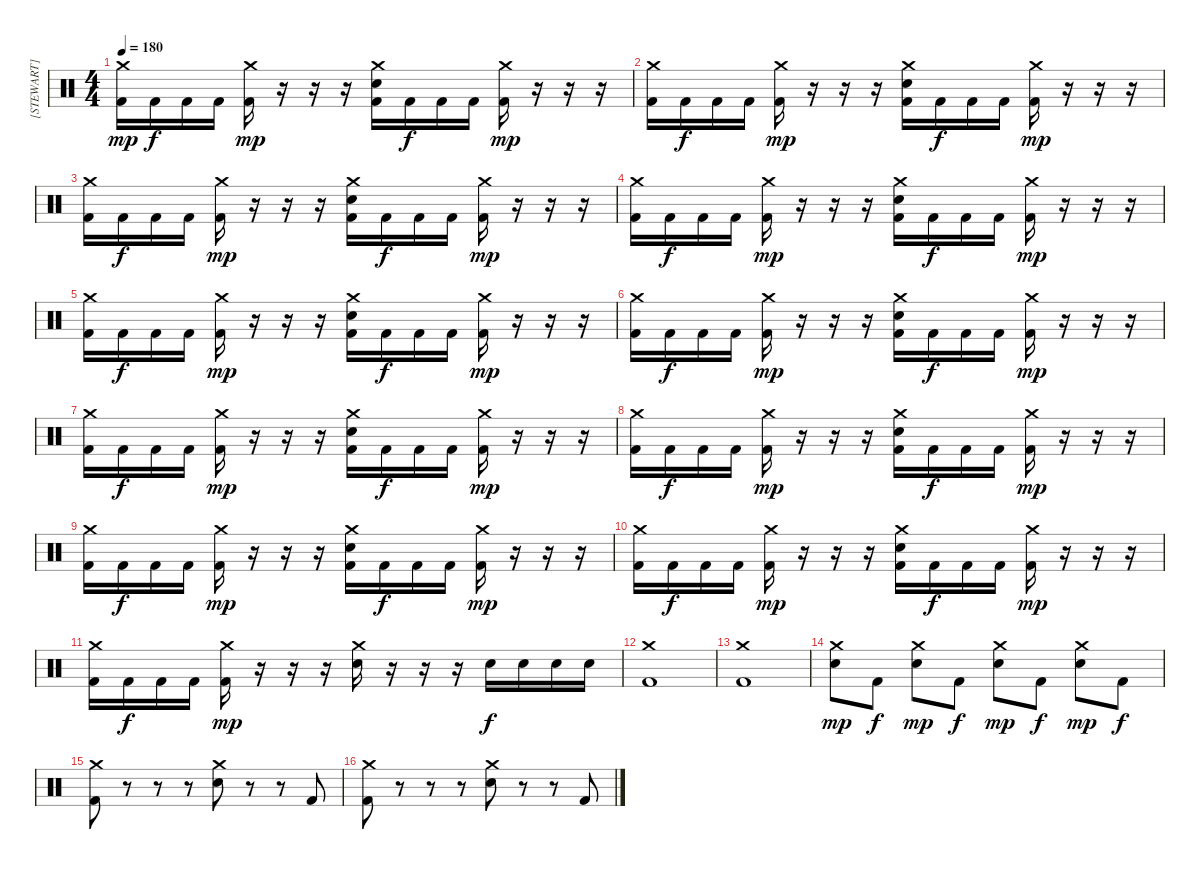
\track ("[STEWART]" "[STEWART]") {instrument percussion}
\staff {score}
\articulation defaults
\ts (4 4)
\tempo 180
\clef neutral
\ks c
("Crash medium (hit)" "Kick (hit) 2").16{dy mp} "Kick (hit) 2".16{dy f} "Kick (hit) 2".16 "Kick (hit) 2".16 ("Crash medium (hit)" "Kick (hit) 2").16{dy mp} r.16 r.16 r.16 ("Crash medium (hit)" "Snare (hit) 2" "Kick (hit) 2").16 "Kick (hit) 2".16{dy f} "Kick (hit) 2".16 "Kick (hit) 2".16 ("Crash medium (hit)" "Kick (hit) 2").16{dy mp} r.16 r.16 r.16 |
("Crash medium (hit)" "Kick (hit) 2").16 "Kick (hit) 2".16{dy f} "Kick (hit) 2".16 "Kick (hit) 2".16 ("Crash medium (hit)" "Kick (hit) 2").16{dy mp} r.16 r.16 r.16 ("Crash medium (hit)" "Snare (hit) 2" "Kick (hit) 2").16 "Kick (hit) 2".16{dy f} "Kick (hit) 2".16 "Kick (hit) 2".16 ("Crash medium (hit)" "Kick (hit) 2").16{dy mp} r.16 r.16 r.16 |
("Crash medium (hit)" "Kick (hit) 2").16 "Kick (hit) 2".16{dy f} "Kick (hit) 2".16 "Kick (hit) 2".16 ("Crash medium (hit)" "Kick (hit) 2").16{dy mp} r.16 r.16 r.16 ("Crash medium (hit)" "Snare (hit) 2" "Kick (hit) 2").16 "Kick (hit) 2".16{dy f} "Kick (hit) 2".16 "Kick (hit) 2".16 ("Crash medium (hit)" "Kick (hit) 2").16{dy mp} r.16 r.16 r.16 |
("Crash medium (hit)" "Kick (hit) 2").16 "Kick (hit) 2".16{dy f} "Kick (hit) 2".16 "Kick (hit) 2".16 ("Crash medium (hit)" "Kick (hit) 2").16{dy mp} r.16 r.16 r.16 ("Crash medium (hit)" "Snare (hit) 2" "Kick (hit) 2").16 "Kick (hit) 2".16{dy f} "Kick (hit) 2".16 "Kick (hit) 2".16 ("Crash medium (hit)" "Kick (hit) 2").16{dy mp} r.16 r.16 r.16 |
("Crash medium (hit)" "Kick (hit) 2").16 "Kick (hit) 2".16{dy f} "Kick (hit) 2".16 "Kick (hit) 2".16 ("Crash medium (hit)" "Kick (hit) 2").16{dy mp} r.16 r.16 r.16 ("Crash medium (hit)" "Snare (hit) 2" "Kick (hit) 2").16 "Kick (hit) 2".16{dy f} "Kick (hit) 2".16 "Kick (hit) 2".16 ("Crash medium (hit)" "Kick (hit) 2").16{dy mp} r.16 r.16 r.16 |
("Crash medium (hit)" "Kick (hit) 2").16 "Kick (hit) 2".16{dy f} "Kick (hit) 2".16 "Kick (hit) 2".16 ("Crash medium (hit)" "Kick (hit) 2").16{dy mp} r.16 r.16 r.16 ("Crash medium (hit)" "Snare (hit) 2" "Kick (hit) 2").16 "Kick (hit) 2".16{dy f} "Kick (hit) 2".16 "Kick (hit) 2".16 ("Crash medium (hit)" "Kick (hit) 2").16{dy mp} r.16 r.16 r.16 |
("Crash medium (hit)" "Kick (hit) 2").16 "Kick (hit) 2".16{dy f} "Kick (hit) 2".16 "Kick (hit) 2".16 ("Crash medium (hit)" "Kick (hit) 2").16{dy mp} r.16 r.16 r.16 ("Crash medium (hit)" "Snare (hit) 2" "Kick (hit) 2").16 "Kick (hit) 2".16{dy f} "Kick (hit) 2".16 "Kick (hit) 2".16 ("Crash medium (hit)" "Kick (hit) 2").16{dy mp} r.16 r.16 r.16 |
("Crash medium (hit)" "Kick (hit) 2").16 "Kick (hit) 2".16{dy f} "Kick (hit) 2".16 "Kick (hit) 2".16 ("Crash medium (hit)" "Kick (hit) 2").16{dy mp} r.16 r.16 r.16 ("Crash medium (hit)" "Snare (hit) 2" "Kick (hit) 2").16 "Kick (hit) 2".16{dy f} "Kick (hit) 2".16 "Kick (hit) 2".16 ("Crash medium (hit)" "Kick (hit) 2").16{dy mp} r.16 r.16 r.16 |
("Crash medium (hit)" "Kick (hit) 2").16 "Kick (hit) 2".16{dy f} "Kick (hit) 2".16 "Kick (hit) 2".16 ("Crash medium (hit)" "Kick (hit) 2").16{dy mp} r.16 r.16 r.16 ("Crash medium (hit)" "Snare (hit) 2" "Kick (hit) 2").16 "Kick (hit) 2".16{dy f} "Kick (hit) 2".16 "Kick (hit) 2".16 ("Crash medium (hit)" "Kick (hit) 2").16{dy mp} r.16 r.16 r.16 |
("Crash medium (hit)" "Kick (hit) 2").16 "Kick (hit) 2".16{dy f} "Kick (hit) 2".16 "Kick (hit) 2".16 ("Crash medium (hit)" "Kick (hit) 2").16{dy mp} r.16 r.16 r.16 ("Crash medium (hit)" "Snare (hit) 2" "Kick (hit) 2").16 "Kick (hit) 2".16{dy f} "Kick (hit) 2".16 "Kick (hit) 2".16 ("Crash medium (hit)" "Kick (hit) 2").16{dy mp} r.16 r.16 r.16 |
("Crash medium (hit)" "Kick (hit) 2").16 "Kick (hit) 2".16{dy f} "Kick (hit) 2".16 "Kick (hit) 2".16 ("Crash medium (hit)" "Kick (hit) 2").16{dy mp} r.16 r.16 r.16 ("Crash medium (hit)" "Snare (hit) 2").16 r.16 r.16 r.16 "Snare (hit) 2".16{dy f} "Snare (hit) 2".16 "Snare (hit) 2".16 "Snare (hit) 2".16 |
("Crash medium (hit)" "Kick (hit) 2").1 |
("Crash medium (hit)" "Kick (hit) 2").1 |
("Crash medium (hit)" "Snare (hit) 2").8{dy mp} "Kick (hit) 2".8{dy f} ("Crash medium (hit)" "Snare (hit) 2").8{dy mp} "Kick (hit) 2".8{dy f} ("Crash medium (hit)" "Snare (hit) 2").8{dy mp} "Kick (hit) 2".8{dy f} ("Crash medium (hit)" "Snare (hit) 2").8{dy mp} "Kick (hit) 2".8{dy f} |
("Crash medium (hit)" "Kick (hit) 2").8 r.8 r.8 r.8 ("Crash medium (hit)" "Snare (hit) 2").8 r.8 r.8 "Kick (hit) 2".8 |
("Crash medium (hit)" "Kick (hit) 2").8 r.8 r.8 r.8 ("Crash medium (hit)" "Snare (hit) 2").8 r.8 r.8 "Kick (hit) 2".8
